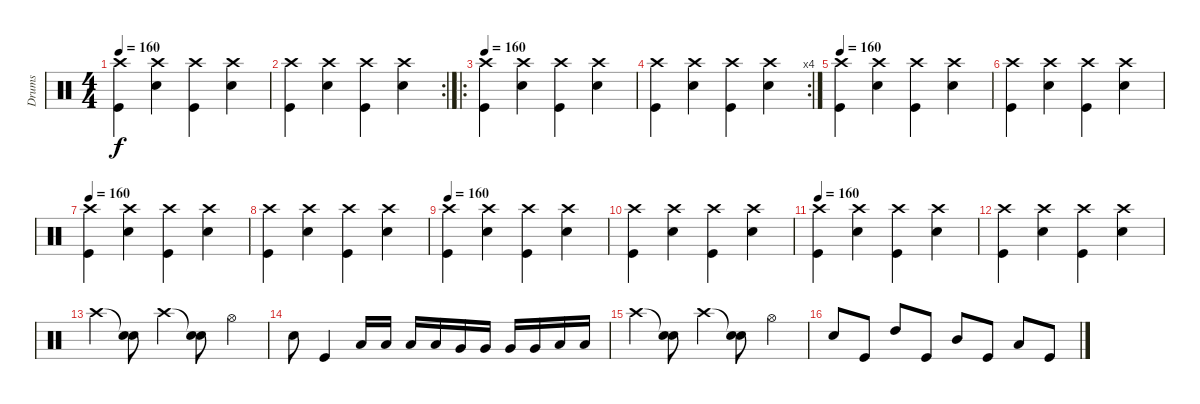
\track ("Drums" "Drums") {instrument percussion}
\staff {score}
\articulation defaults
\ts (4 4)
\tempo 160
\clef neutral
\ks c
("Crash high (hit)" "Kick (hit)").4{dy f} ("Crash high (hit)" "Snare (hit) 2").4 ("Crash high (hit)" "Kick (hit)").4 ("Crash high (hit)" "Snare (hit) 2").4 |
\rc 2
("Crash high (hit)" "Kick (hit)").4 ("Crash high (hit)" "Snare (hit) 2").4 ("Crash high (hit)" "Kick (hit)").4 ("Crash high (hit)" "Snare (hit) 2").4 |
\ro
\tempo 160
("Crash high (hit)" "Kick (hit)").4 ("Crash high (hit)" "Snare (hit) 2").4 ("Crash high (hit)" "Kick (hit)").4 ("Crash high (hit)" "Snare (hit) 2").4 |
\rc 4
("Crash high (hit)" "Kick (hit)").4 ("Crash high (hit)" "Snare (hit) 2").4 ("Crash high (hit)" "Kick (hit)").4 ("Crash high (hit)" "Snare (hit) 2").4 |
\tempo 160
("Crash high (hit)" "Kick (hit)").4 ("Crash high (hit)" "Snare (hit) 2").4 ("Crash high (hit)" "Kick (hit)").4 ("Crash high (hit)" "Snare (hit) 2").4 |
("Crash high (hit)" "Kick (hit)").4 ("Crash high (hit)" "Snare (hit) 2").4 ("Crash high (hit)" "Kick (hit)").4 ("Crash high (hit)" "Snare (hit) 2").4 |
\tempo 160
("Crash high (hit)" "Kick (hit)").4 ("Crash high (hit)" "Snare (hit) 2").4 ("Crash high (hit)" "Kick (hit)").4 ("Crash high (hit)" "Snare (hit) 2").4 |
("Crash high (hit)" "Kick (hit)").4 ("Crash high (hit)" "Snare (hit) 2").4 ("Crash high (hit)" "Kick (hit)").4 ("Crash high (hit)" "Snare (hit) 2").4 |
\tempo 160
("Crash high (hit)" "Kick (hit)").4 ("Crash high (hit)" "Snare (hit) 2").4 ("Crash high (hit)" "Kick (hit)").4 ("Crash high (hit)" "Snare (hit) 2").4 |
("Crash high (hit)" "Kick (hit)").4 ("Crash high (hit)" "Snare (hit) 2").4 ("Crash high (hit)" "Kick (hit)").4 ("Crash high (hit)" "Snare (hit) 2").4 |
\tempo 160
("Crash high (hit)" "Kick (hit)").4 ("Crash high (hit)" "Snare (hit) 2").4 ("Crash high (hit)" "Kick (hit)").4 ("Crash high (hit)" "Snare (hit) 2").4 |
("Crash high (hit)" "Kick (hit)").4 ("Crash high (hit)" "Snare (hit) 2").4 ("Crash high (hit)" "Kick (hit)").4 ("Crash high (hit)" "Snare (hit) 2").4 |
"Crash high (hit)".4 ("Snare (hit)"{t} "Electric Snare (hit)").8 "Crash high (hit)".4 ("Snare (hit)"{t} "Electric Snare (hit)").8 "Hi-Hat (open)".4 |
"Snare (hit) 2".8 "Kick (hit)".4 "Low Tom (hit)".16 "Low Tom (hit)".16 "Low Tom (hit)".16 "Low Tom (hit)".16 "Very Low Tom (hit)".16 "Very Low Tom (hit)".16 "Very Low Tom (hit)".16 "Very Low Tom (hit)".16 "Low Floor Tom (hit)".16 "Low Floor Tom (hit)".16 |
"Crash high (hit)".4 ("Snare (hit)"{t} "Electric Snare (hit)").8 "Crash high (hit)".4 ("Snare (hit)"{t} "Electric Snare (hit)").8 "Hi-Hat (open)".4 |
"Snare (hit) 2".8 "Kick (hit)".8 "High Tom (hit)".8 "Kick (hit)".8 "Mid Tom (hit)".8 "Kick (hit)".8 "Low Tom (hit)".8 "Kick (hit)".8
